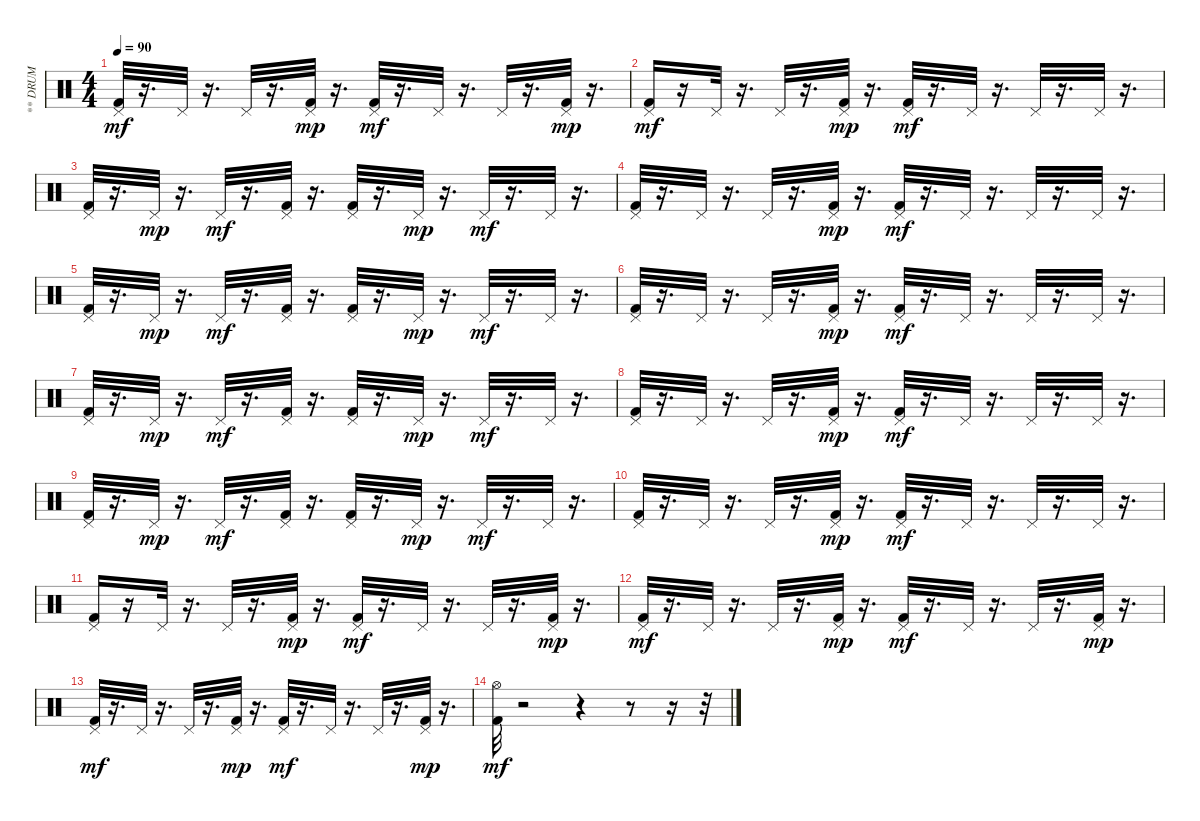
\track ("** DRUM" "** DRUM") {instrument percussion}
\staff {score}
\articulation defaults
\ts (4 4)
\tempo 90
\clef neutral
\ks c
("Kick (hit) 2" "Pedal Hi-Hat (hit)").32{dy mf} r.16{d} "Pedal Hi-Hat (hit)".32 r.16{d} "Pedal Hi-Hat (hit)".32 r.16{d} ("Kick (hit) 2" "Pedal Hi-Hat (hit)").32{dy mp} r.16{d} ("Kick (hit) 2" "Pedal Hi-Hat (hit)").32{dy mf} r.16{d} "Pedal Hi-Hat (hit)".32 r.16{d} "Pedal Hi-Hat (hit)".32 r.16{d} ("Kick (hit) 2" "Pedal Hi-Hat (hit)").32{dy mp} r.16{d} |
("Kick (hit) 2" "Pedal Hi-Hat (hit)").16{dy mf} r.16 "Pedal Hi-Hat (hit)".32 r.16{d} "Pedal Hi-Hat (hit)".32 r.16{d} ("Kick (hit) 2" "Pedal Hi-Hat (hit)").32{dy mp} r.16{d} ("Kick (hit) 2" "Pedal Hi-Hat (hit)").32{dy mf} r.16{d} "Pedal Hi-Hat (hit)".32 r.16{d} "Pedal Hi-Hat (hit)".32 r.16{d} "Pedal Hi-Hat (hit)".32 r.16{d} |
("Kick (hit) 2" "Pedal Hi-Hat (hit)").32 r.16{d} "Pedal Hi-Hat (hit)".32{dy mp} r.16{d} "Pedal Hi-Hat (hit)".32{dy mf} r.16{d} ("Kick (hit) 2" "Pedal Hi-Hat (hit)").32 r.16{d} ("Kick (hit) 2" "Pedal Hi-Hat (hit)").32 r.16{d} "Pedal Hi-Hat (hit)".32{dy mp} r.16{d} "Pedal Hi-Hat (hit)".32{dy mf} r.16{d} "Pedal Hi-Hat (hit)".32 r.16{d} |
("Kick (hit) 2" "Pedal Hi-Hat (hit)").32 r.16{d} "Pedal Hi-Hat (hit)".32 r.16{d} "Pedal Hi-Hat (hit)".32 r.16{d} ("Kick (hit) 2" "Pedal Hi-Hat (hit)").32{dy mp} r.16{d} ("Kick (hit) 2" "Pedal Hi-Hat (hit)").32{dy mf} r.16{d} "Pedal Hi-Hat (hit)".32 r.16{d} "Pedal Hi-Hat (hit)".32 r.16{d} "Pedal Hi-Hat (hit)".32 r.16{d} |
("Kick (hit) 2" "Pedal Hi-Hat (hit)").32 r.16{d} "Pedal Hi-Hat (hit)".32{dy mp} r.16{d} "Pedal Hi-Hat (hit)".32{dy mf} r.16{d} ("Kick (hit) 2" "Pedal Hi-Hat (hit)").32 r.16{d} ("Kick (hit) 2" "Pedal Hi-Hat (hit)").32 r.16{d} "Pedal Hi-Hat (hit)".32{dy mp} r.16{d} "Pedal Hi-Hat (hit)".32{dy mf} r.16{d} "Pedal Hi-Hat (hit)".32 r.16{d} |
("Kick (hit) 2" "Pedal Hi-Hat (hit)").32 r.16{d} "Pedal Hi-Hat (hit)".32 r.16{d} "Pedal Hi-Hat (hit)".32 r.16{d} ("Kick (hit) 2" "Pedal Hi-Hat (hit)").32{dy mp} r.16{d} ("Kick (hit) 2" "Pedal Hi-Hat (hit)").32{dy mf} r.16{d} "Pedal Hi-Hat (hit)".32 r.16{d} "Pedal Hi-Hat (hit)".32 r.16{d} "Pedal Hi-Hat (hit)".32 r.16{d} |
("Kick (hit) 2" "Pedal Hi-Hat (hit)").32 r.16{d} "Pedal Hi-Hat (hit)".32{dy mp} r.16{d} "Pedal Hi-Hat (hit)".32{dy mf} r.16{d} ("Kick (hit) 2" "Pedal Hi-Hat (hit)").32 r.16{d} ("Kick (hit) 2" "Pedal Hi-Hat (hit)").32 r.16{d} "Pedal Hi-Hat (hit)".32{dy mp} r.16{d} "Pedal Hi-Hat (hit)".32{dy mf} r.16{d} "Pedal Hi-Hat (hit)".32 r.16{d} |
("Kick (hit) 2" "Pedal Hi-Hat (hit)").32 r.16{d} "Pedal Hi-Hat (hit)".32 r.16{d} "Pedal Hi-Hat (hit)".32 r.16{d} ("Kick (hit) 2" "Pedal Hi-Hat (hit)").32{dy mp} r.16{d} ("Kick (hit) 2" "Pedal Hi-Hat (hit)").32{dy mf} r.16{d} "Pedal Hi-Hat (hit)".32 r.16{d} "Pedal Hi-Hat (hit)".32 r.16{d} "Pedal Hi-Hat (hit)".32 r.16{d} |
("Kick (hit) 2" "Pedal Hi-Hat (hit)").32 r.16{d} "Pedal Hi-Hat (hit)".32{dy mp} r.16{d} "Pedal Hi-Hat (hit)".32{dy mf} r.16{d} ("Kick (hit) 2" "Pedal Hi-Hat (hit)").32 r.16{d} ("Kick (hit) 2" "Pedal Hi-Hat (hit)").32 r.16{d} "Pedal Hi-Hat (hit)".32{dy mp} r.16{d} "Pedal Hi-Hat (hit)".32{dy mf} r.16{d} "Pedal Hi-Hat (hit)".32 r.16{d} |
("Kick (hit) 2" "Pedal Hi-Hat (hit)").32 r.16{d} "Pedal Hi-Hat (hit)".32 r.16{d} "Pedal Hi-Hat (hit)".32 r.16{d} ("Kick (hit) 2" "Pedal Hi-Hat (hit)").32{dy mp} r.16{d} ("Kick (hit) 2" "Pedal Hi-Hat (hit)").32{dy mf} r.16{d} "Pedal Hi-Hat (hit)".32 r.16{d} "Pedal Hi-Hat (hit)".32 r.16{d} "Pedal Hi-Hat (hit)".32 r.16{d} |
("Kick (hit) 2" "Pedal Hi-Hat (hit)").16 r.16 "Pedal Hi-Hat (hit)".32 r.16{d} "Pedal Hi-Hat (hit)".32 r.16{d} ("Kick (hit) 2" "Pedal Hi-Hat (hit)").32{dy mp} r.16{d} ("Kick (hit) 2" "Pedal Hi-Hat (hit)").32{dy mf} r.16{d} "Pedal Hi-Hat (hit)".32 r.16{d} "Pedal Hi-Hat (hit)".32 r.16{d} ("Kick (hit) 2" "Pedal Hi-Hat (hit)").32{dy mp} r.16{d} |
("Kick (hit) 2" "Pedal Hi-Hat (hit)").32{dy mf} r.16{d} "Pedal Hi-Hat (hit)".32 r.16{d} "Pedal Hi-Hat (hit)".32 r.16{d} ("Kick (hit) 2" "Pedal Hi-Hat (hit)").32{dy mp} r.16{d} ("Kick (hit) 2" "Pedal Hi-Hat (hit)").32{dy mf} r.16{d} "Pedal Hi-Hat (hit)".32 r.16{d} "Pedal Hi-Hat (hit)".32 r.16{d} ("Kick (hit) 2" "Pedal Hi-Hat (hit)").32{dy mp} r.16{d} |
("Kick (hit) 2" "Pedal Hi-Hat (hit)").32{dy mf} r.16{d} "Pedal Hi-Hat (hit)".32 r.16{d} "Pedal Hi-Hat (hit)".32 r.16{d} ("Kick (hit) 2" "Pedal Hi-Hat (hit)").32{dy mp} r.16{d} ("Kick (hit) 2" "Pedal Hi-Hat (hit)").32{dy mf} r.16{d} "Pedal Hi-Hat (hit)".32 r.16{d} "Pedal Hi-Hat (hit)".32 r.16{d} ("Kick (hit) 2" "Pedal Hi-Hat (hit)").32{dy mp} r.16{d} |
("Kick (hit) 2" "Hi-Hat (open)").32{dy mf} r.2 r.4 r.8 r.16 r.32
